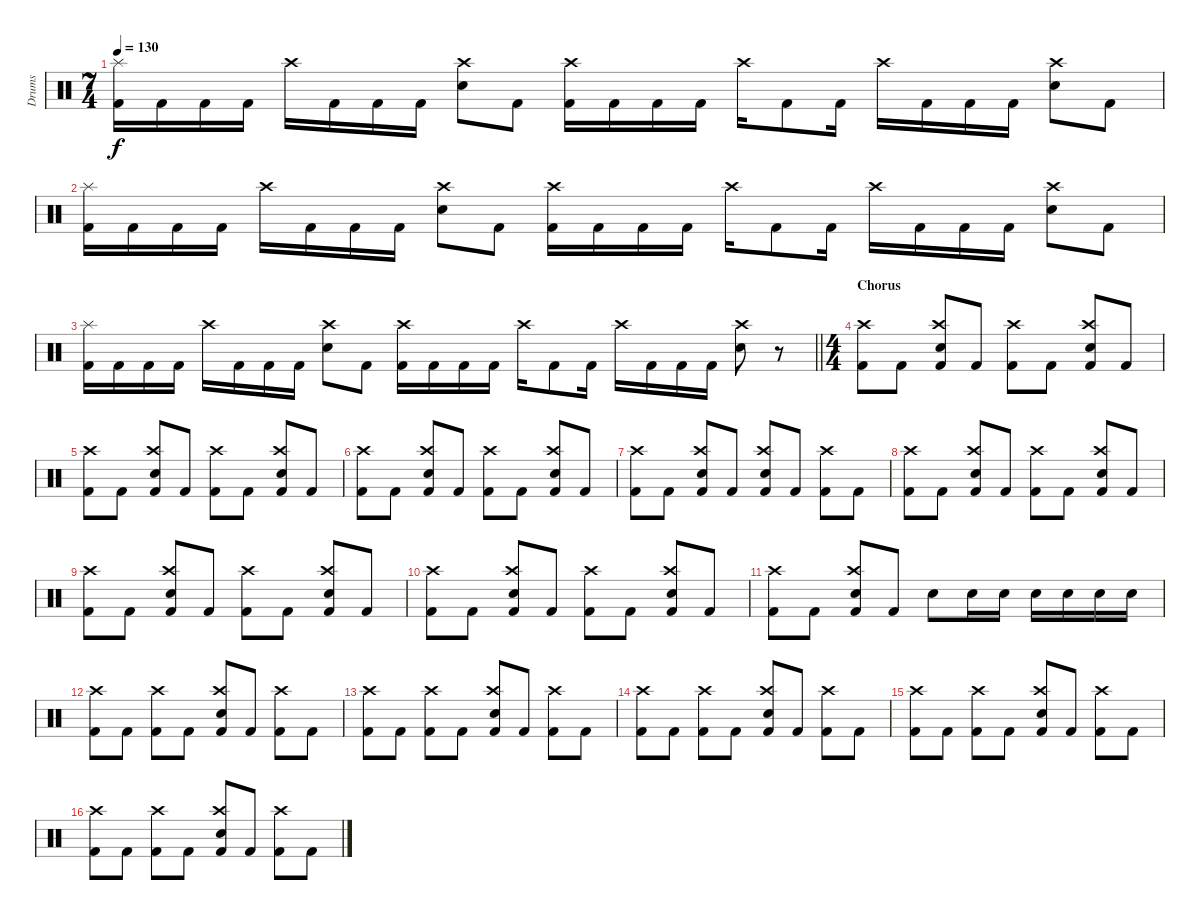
\track ("Drums" "Drums") {instrument percussion}
\staff {score}
\articulation defaults
\ts (7 4)
\tempo 130
\clef neutral
\ks c
("Splash (hit)" "Kick (hit) 2").16{dy f} "Kick (hit) 2".16 "Kick (hit) 2".16 "Kick (hit) 2".16 "Crash high (hit)".16 "Kick (hit) 2".16 "Kick (hit) 2".16 "Kick (hit) 2".16 ("Crash high (hit)" "Electric Snare (hit)").8 "Kick (hit) 2".8 ("Crash high (hit)" "Kick (hit) 2").16 "Kick (hit) 2".16 "Kick (hit) 2".16 "Kick (hit) 2".16 "Crash high (hit)".16 "Kick (hit) 2".8 "Kick (hit) 2".16 "Crash high (hit)".16 "Kick (hit) 2".16 "Kick (hit) 2".16 "Kick (hit) 2".16 ("Crash high (hit)" "Electric Snare (hit)").8 "Kick (hit) 2".8 |
("Splash (hit)" "Kick (hit) 2").16 "Kick (hit) 2".16 "Kick (hit) 2".16 "Kick (hit) 2".16 "Crash high (hit)".16 "Kick (hit) 2".16 "Kick (hit) 2".16 "Kick (hit) 2".16 ("Crash high (hit)" "Electric Snare (hit)").8 "Kick (hit) 2".8 ("Crash high (hit)" "Kick (hit) 2").16 "Kick (hit) 2".16 "Kick (hit) 2".16 "Kick (hit) 2".16 "Crash high (hit)".16 "Kick (hit) 2".8 "Kick (hit) 2".16 "Crash high (hit)".16 "Kick (hit) 2".16 "Kick (hit) 2".16 "Kick (hit) 2".16 ("Crash high (hit)" "Electric Snare (hit)").8 "Kick (hit) 2".8 |
\barLineRight lightlight
("Splash (hit)" "Kick (hit) 2").16 "Kick (hit) 2".16 "Kick (hit) 2".16 "Kick (hit) 2".16 "Crash high (hit)".16 "Kick (hit) 2".16 "Kick (hit) 2".16 "Kick (hit) 2".16 ("Crash high (hit)" "Electric Snare (hit)").8 "Kick (hit) 2".8 ("Crash high (hit)" "Kick (hit) 2").16 "Kick (hit) 2".16 "Kick (hit) 2".16 "Kick (hit) 2".16 "Crash high (hit)".16 "Kick (hit) 2".8 "Kick (hit) 2".16 "Crash high (hit)".16 "Kick (hit) 2".16 "Kick (hit) 2".16 "Kick (hit) 2".16 ("Crash high (hit)" "Electric Snare (hit)").8 r.8 |
\ts (4 4)
\section ("" "Chorus")
("Crash high (hit)" "Kick (hit) 2").8 "Kick (hit) 2".8 ("Crash high (hit)" "Electric Snare (hit)" "Kick (hit) 2").8 "Kick (hit) 2".8 ("Crash high (hit)" "Kick (hit) 2").8 "Kick (hit) 2".8 ("Crash high (hit)" "Electric Snare (hit)" "Kick (hit) 2").8 "Kick (hit) 2".8 |
("Crash high (hit)" "Kick (hit) 2").8 "Kick (hit) 2".8 ("Crash high (hit)" "Electric Snare (hit)" "Kick (hit) 2").8 "Kick (hit) 2".8 ("Crash high (hit)" "Kick (hit) 2").8 "Kick (hit) 2".8 ("Crash high (hit)" "Electric Snare (hit)" "Kick (hit) 2").8 "Kick (hit) 2".8 |
("Crash high (hit)" "Kick (hit) 2").8 "Kick (hit) 2".8 ("Crash high (hit)" "Electric Snare (hit)" "Kick (hit) 2").8 "Kick (hit) 2".8 ("Crash high (hit)" "Kick (hit) 2").8 "Kick (hit) 2".8 ("Crash high (hit)" "Electric Snare (hit)" "Kick (hit) 2").8 "Kick (hit) 2".8 |
("Crash high (hit)" "Kick (hit) 2").8 "Kick (hit) 2".8 ("Crash high (hit)" "Electric Snare (hit)" "Kick (hit) 2").8 "Kick (hit) 2".8 ("Crash high (hit)" "Electric Snare (hit)" "Kick (hit) 2").8 "Kick (hit) 2".8 ("Crash high (hit)" "Kick (hit) 2").8 "Kick (hit) 2".8 |
("Crash high (hit)" "Kick (hit) 2").8 "Kick (hit) 2".8 ("Crash high (hit)" "Electric Snare (hit)" "Kick (hit) 2").8 "Kick (hit) 2".8 ("Crash high (hit)" "Kick (hit) 2").8 "Kick (hit) 2".8 ("Crash high (hit)" "Electric Snare (hit)" "Kick (hit) 2").8 "Kick (hit) 2".8 |
("Crash high (hit)" "Kick (hit) 2").8 "Kick (hit) 2".8 ("Crash high (hit)" "Electric Snare (hit)" "Kick (hit) 2").8 "Kick (hit) 2".8 ("Crash high (hit)" "Kick (hit) 2").8 "Kick (hit) 2".8 ("Crash high (hit)" "Electric Snare (hit)" "Kick (hit) 2").8 "Kick (hit) 2".8 |
("Crash high (hit)" "Kick (hit) 2").8 "Kick (hit) 2".8 ("Crash high (hit)" "Electric Snare (hit)" "Kick (hit) 2").8 "Kick (hit) 2".8 ("Crash high (hit)" "Kick (hit) 2").8 "Kick (hit) 2".8 ("Crash high (hit)" "Electric Snare (hit)" "Kick (hit) 2").8 "Kick (hit) 2".8 |
("Crash high (hit)" "Kick (hit) 2").8 "Kick (hit) 2".8 ("Crash high (hit)" "Electric Snare (hit)" "Kick (hit) 2").8 "Kick (hit) 2".8 "Electric Snare (hit)".8 "Electric Snare (hit)".16 "Electric Snare (hit)".16 "Electric Snare (hit)".16 "Electric Snare (hit)".16 "Electric Snare (hit)".16 "Electric Snare (hit)".16 |
("Crash high (hit)" "Kick (hit) 2").8 "Kick (hit) 2".8 ("Crash high (hit)" "Kick (hit) 2").8 "Kick (hit) 2".8 ("Crash high (hit)" "Electric Snare (hit)" "Kick (hit) 2").8 "Kick (hit) 2".8 ("Crash high (hit)" "Kick (hit) 2").8 "Kick (hit) 2".8 |
("Crash high (hit)" "Kick (hit) 2").8 "Kick (hit) 2".8 ("Crash high (hit)" "Kick (hit) 2").8 "Kick (hit) 2".8 ("Crash high (hit)" "Electric Snare (hit)" "Kick (hit) 2").8 "Kick (hit) 2".8 ("Crash high (hit)" "Kick (hit) 2").8 "Kick (hit) 2".8 |
("Crash high (hit)" "Kick (hit) 2").8 "Kick (hit) 2".8 ("Crash high (hit)" "Kick (hit) 2").8 "Kick (hit) 2".8 ("Crash high (hit)" "Electric Snare (hit)" "Kick (hit) 2").8 "Kick (hit) 2".8 ("Crash high (hit)" "Kick (hit) 2").8 "Kick (hit) 2".8 |
("Crash high (hit)" "Kick (hit) 2").8 "Kick (hit) 2".8 ("Crash high (hit)" "Kick (hit) 2").8 "Kick (hit) 2".8 ("Crash high (hit)" "Electric Snare (hit)" "Kick (hit) 2").8 "Kick (hit) 2".8 ("Crash high (hit)" "Kick (hit) 2").8 "Kick (hit) 2".8 |
("Crash high (hit)" "Kick (hit) 2").8 "Kick (hit) 2".8 ("Crash high (hit)" "Kick (hit) 2").8 "Kick (hit) 2".8 ("Crash high (hit)" "Electric Snare (hit)" "Kick (hit) 2").8 "Kick (hit) 2".8 ("Crash high (hit)" "Kick (hit) 2").8 "Kick (hit) 2".8
